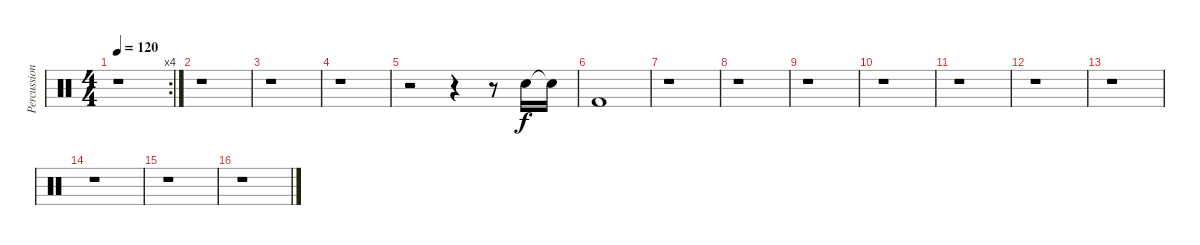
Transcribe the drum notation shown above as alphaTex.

\track ("Percussion" "Percussion") {instrument percussion}
\staff {score}
\articulation defaults
\rc 4
\ts (4 4)
\tempo 120
\clef neutral
\ks c
r.1{dy f} |
r.1 |
r.1 |
r.1 |
r.2 r.4 r.8 "Snare (hit) 2".16 "Snare (hit) 2"{t}.16 |
"Kick (hit) 2".1 |
r.1 |
r.1 |
r.1 |
r.1 |
r.1 |
r.1 |
r.1 |
r.1 |
r.1 |
r.1
